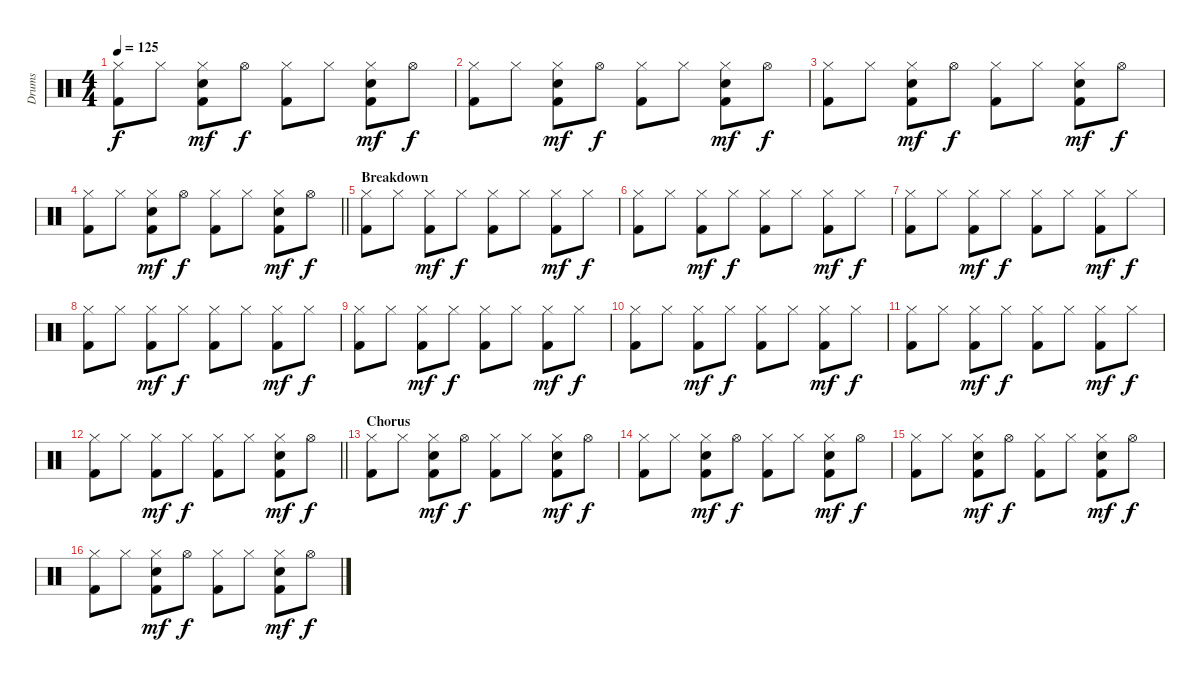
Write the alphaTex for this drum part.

\track ("Drums" "Drums") {instrument percussion}
\staff {score}
\articulation defaults
\ts (4 4)
\tempo 125
\clef neutral
\ks c
("Hi-Hat (closed)" "Kick (hit) 2").8{dy f} "Hi-Hat (closed)".8 ("Hi-Hat (closed)" "Snare (hit) 2" "Kick (hit) 2").8{dy mf} "Hi-Hat (open)".8{dy f} ("Hi-Hat (closed)" "Kick (hit) 2").8 "Hi-Hat (closed)".8 ("Hi-Hat (closed)" "Snare (hit) 2" "Kick (hit) 2").8{dy mf} "Hi-Hat (open)".8{dy f} |
("Hi-Hat (closed)" "Kick (hit) 2").8 "Hi-Hat (closed)".8 ("Hi-Hat (closed)" "Snare (hit) 2" "Kick (hit) 2").8{dy mf} "Hi-Hat (open)".8{dy f} ("Hi-Hat (closed)" "Kick (hit) 2").8 "Hi-Hat (closed)".8 ("Hi-Hat (closed)" "Snare (hit) 2" "Kick (hit) 2").8{dy mf} "Hi-Hat (open)".8{dy f} |
("Hi-Hat (closed)" "Kick (hit) 2").8 "Hi-Hat (closed)".8 ("Hi-Hat (closed)" "Snare (hit) 2" "Kick (hit) 2").8{dy mf} "Hi-Hat (open)".8{dy f} ("Hi-Hat (closed)" "Kick (hit) 2").8 "Hi-Hat (closed)".8 ("Hi-Hat (closed)" "Snare (hit) 2" "Kick (hit) 2").8{dy mf} "Hi-Hat (open)".8{dy f} |
\barLineRight lightlight
("Hi-Hat (closed)" "Kick (hit) 2").8 "Hi-Hat (closed)".8 ("Hi-Hat (closed)" "Snare (hit) 2" "Kick (hit) 2").8{dy mf} "Hi-Hat (open)".8{dy f} ("Hi-Hat (closed)" "Kick (hit) 2").8 "Hi-Hat (closed)".8 ("Hi-Hat (closed)" "Snare (hit) 2" "Kick (hit) 2").8{dy mf} "Hi-Hat (open)".8{dy f} |
\section ("" "Breakdown")
("Hi-Hat (closed)" "Kick (hit) 2").8 "Hi-Hat (closed)".8 ("Hi-Hat (closed)" "Kick (hit) 2").8{dy mf} "Hi-Hat (closed)".8{dy f} ("Hi-Hat (closed)" "Kick (hit) 2").8 "Hi-Hat (closed)".8 ("Hi-Hat (closed)" "Kick (hit) 2").8{dy mf} "Hi-Hat (closed)".8{dy f} |
("Hi-Hat (closed)" "Kick (hit) 2").8 "Hi-Hat (closed)".8 ("Hi-Hat (closed)" "Kick (hit) 2").8{dy mf} "Hi-Hat (closed)".8{dy f} ("Hi-Hat (closed)" "Kick (hit) 2").8 "Hi-Hat (closed)".8 ("Hi-Hat (closed)" "Kick (hit) 2").8{dy mf} "Hi-Hat (closed)".8{dy f} |
("Hi-Hat (closed)" "Kick (hit) 2").8 "Hi-Hat (closed)".8 ("Hi-Hat (closed)" "Kick (hit) 2").8{dy mf} "Hi-Hat (closed)".8{dy f} ("Hi-Hat (closed)" "Kick (hit) 2").8 "Hi-Hat (closed)".8 ("Hi-Hat (closed)" "Kick (hit) 2").8{dy mf} "Hi-Hat (closed)".8{dy f} |
("Hi-Hat (closed)" "Kick (hit) 2").8 "Hi-Hat (closed)".8 ("Hi-Hat (closed)" "Kick (hit) 2").8{dy mf} "Hi-Hat (closed)".8{dy f} ("Hi-Hat (closed)" "Kick (hit) 2").8 "Hi-Hat (closed)".8 ("Hi-Hat (closed)" "Kick (hit) 2").8{dy mf} "Hi-Hat (closed)".8{dy f} |
("Hi-Hat (closed)" "Kick (hit) 2").8 "Hi-Hat (closed)".8 ("Hi-Hat (closed)" "Kick (hit) 2").8{dy mf} "Hi-Hat (closed)".8{dy f} ("Hi-Hat (closed)" "Kick (hit) 2").8 "Hi-Hat (closed)".8 ("Hi-Hat (closed)" "Kick (hit) 2").8{dy mf} "Hi-Hat (closed)".8{dy f} |
("Hi-Hat (closed)" "Kick (hit) 2").8 "Hi-Hat (closed)".8 ("Hi-Hat (closed)" "Kick (hit) 2").8{dy mf} "Hi-Hat (closed)".8{dy f} ("Hi-Hat (closed)" "Kick (hit) 2").8 "Hi-Hat (closed)".8 ("Hi-Hat (closed)" "Kick (hit) 2").8{dy mf} "Hi-Hat (closed)".8{dy f} |
("Hi-Hat (closed)" "Kick (hit) 2").8 "Hi-Hat (closed)".8 ("Hi-Hat (closed)" "Kick (hit) 2").8{dy mf} "Hi-Hat (closed)".8{dy f} ("Hi-Hat (closed)" "Kick (hit) 2").8 "Hi-Hat (closed)".8 ("Hi-Hat (closed)" "Kick (hit) 2").8{dy mf} "Hi-Hat (closed)".8{dy f} |
\barLineRight lightlight
("Hi-Hat (closed)" "Kick (hit) 2").8 "Hi-Hat (closed)".8 ("Hi-Hat (closed)" "Kick (hit) 2").8{dy mf} "Hi-Hat (closed)".8{dy f} ("Hi-Hat (closed)" "Kick (hit) 2").8 "Hi-Hat (closed)".8 ("Hi-Hat (closed)" "Snare (hit) 2" "Kick (hit) 2").8{dy mf} "Hi-Hat (open)".8{dy f} |
\section ("" "Chorus")
("Hi-Hat (closed)" "Kick (hit) 2").8 "Hi-Hat (closed)".8 ("Hi-Hat (closed)" "Snare (hit) 2" "Kick (hit) 2").8{dy mf} "Hi-Hat (open)".8{dy f} ("Hi-Hat (closed)" "Kick (hit) 2").8 "Hi-Hat (closed)".8 ("Hi-Hat (closed)" "Snare (hit) 2" "Kick (hit) 2").8{dy mf} "Hi-Hat (open)".8{dy f} |
("Hi-Hat (closed)" "Kick (hit) 2").8 "Hi-Hat (closed)".8 ("Hi-Hat (closed)" "Snare (hit) 2" "Kick (hit) 2").8{dy mf} "Hi-Hat (open)".8{dy f} ("Hi-Hat (closed)" "Kick (hit) 2").8 "Hi-Hat (closed)".8 ("Hi-Hat (closed)" "Snare (hit) 2" "Kick (hit) 2").8{dy mf} "Hi-Hat (open)".8{dy f} |
("Hi-Hat (closed)" "Kick (hit) 2").8 "Hi-Hat (closed)".8 ("Hi-Hat (closed)" "Snare (hit) 2" "Kick (hit) 2").8{dy mf} "Hi-Hat (open)".8{dy f} ("Hi-Hat (closed)" "Kick (hit) 2").8 "Hi-Hat (closed)".8 ("Hi-Hat (closed)" "Snare (hit) 2" "Kick (hit) 2").8{dy mf} "Hi-Hat (open)".8{dy f} |
("Hi-Hat (closed)" "Kick (hit) 2").8 "Hi-Hat (closed)".8 ("Hi-Hat (closed)" "Snare (hit) 2" "Kick (hit) 2").8{dy mf} "Hi-Hat (open)".8{dy f} ("Hi-Hat (closed)" "Kick (hit) 2").8 "Hi-Hat (closed)".8 ("Hi-Hat (closed)" "Snare (hit) 2" "Kick (hit) 2").8{dy mf} "Hi-Hat (open)".8{dy f}
